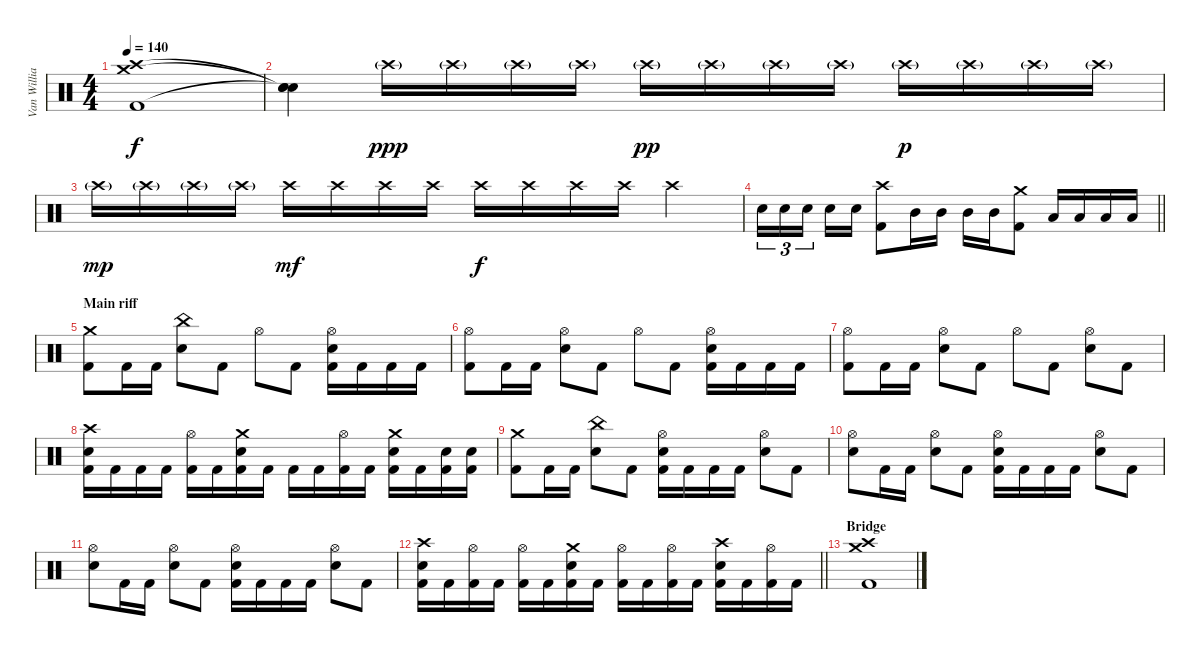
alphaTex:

\track ("Van Williams" "Van Willia") {instrument percussion}
\staff {score}
\articulation defaults
\ts (4 4)
\tempo 140
\clef neutral
\ks c
("Crash medium (hit)" "Crash high (hit)" "Kick (hit) 2").1{dy f} |
("Snare (hit)"{t} "Snare (hit)"{t} "Snare (hit)"{t}).4 "Crash high (hit)"{g}.16{dy ppp} "Crash high (hit)"{g}.16 "Crash high (hit)"{g}.16 "Crash high (hit)"{g}.16 "Crash high (hit)"{g}.16{dy pp} "Crash high (hit)"{g}.16 "Crash high (hit)"{g}.16 "Crash high (hit)"{g}.16 "Crash high (hit)"{g}.16{dy p} "Crash high (hit)"{g}.16 "Crash high (hit)"{g}.16 "Crash high (hit)"{g}.16 |
"Crash high (hit)"{g}.16{dy mp} "Crash high (hit)"{g}.16 "Crash high (hit)"{g}.16 "Crash high (hit)"{g}.16 "Crash high (hit)".16{dy mf} "Crash high (hit)".16 "Crash high (hit)".16 "Crash high (hit)".16 "Crash high (hit)".16{dy f} "Crash high (hit)".16 "Crash high (hit)".16 "Crash high (hit)".16 "Crash high (hit)".4 |
\barLineRight lightlight "Electric Snare (hit)".16{tu (3 2)} "Electric Snare (hit)".16{tu (3 2)} "Electric Snare (hit)".16{tu (3 2) beam splitsecondary} "Electric Snare (hit)".16 "Electric Snare (hit)".16
("Crash high (hit)" "Kick (hit) 2").8 "Mid Tom (hit)".16 "Mid Tom (hit)".16 "Mid Tom (hit)".16 "Mid Tom (hit)".16 ("Crash medium (hit)" "Kick (hit) 2").8 "Low Tom (hit)".16 "Low Tom (hit)".16 "Low Tom (hit)".16 "Low Tom (hit)".16 |
\section ("" "Main riff")
("Crash medium (hit)" "Kick (hit) 2").8 "Kick (hit) 2".16 "Kick (hit) 2".16 ("China (hit)" "Electric Snare (hit)").8 "Kick (hit) 2".8 "Hi-Hat (open)".8 "Kick (hit) 2".8 ("Hi-Hat (open)" "Electric Snare (hit)" "Kick (hit) 2").16 "Kick (hit) 2".16 "Kick (hit) 2".16 "Kick (hit) 2".16 |
("Hi-Hat (open)" "Kick (hit) 2").8 "Kick (hit) 2".16 "Kick (hit) 2".16 ("Hi-Hat (open)" "Electric Snare (hit)").8 "Kick (hit) 2".8 "Hi-Hat (open)".8 "Kick (hit) 2".8 ("Hi-Hat (open)" "Electric Snare (hit)" "Kick (hit) 2").16 "Kick (hit) 2".16 "Kick (hit) 2".16 "Kick (hit) 2".16 |
("Hi-Hat (open)" "Kick (hit) 2").8 "Kick (hit) 2".16 "Kick (hit) 2".16 ("Hi-Hat (open)" "Electric Snare (hit)").8 "Kick (hit) 2".8 "Hi-Hat (open)".8 "Kick (hit) 2".8 ("Hi-Hat (open)" "Electric Snare (hit)").8 "Kick (hit) 2".8 |
("Crash high (hit)" "Electric Snare (hit)" "Kick (hit) 2").16 "Kick (hit) 2".16 "Kick (hit) 2".16 "Kick (hit) 2".16 ("Hi-Hat (open)" "Kick (hit) 2").16 "Kick (hit) 2".16 ("Crash medium (hit)" "Electric Snare (hit)" "Kick (hit) 2").16 "Kick (hit) 2".16 "Kick (hit) 2".16 "Kick (hit) 2".16 ("Hi-Hat (open)" "Kick (hit) 2").16 "Kick (hit) 2".16 ("Crash medium (hit)" "Electric Snare (hit)" "Kick (hit) 2").16 "Kick (hit) 2".16 ("Electric Snare (hit)" "Kick (hit) 2").16 ("Electric Snare (hit)" "Kick (hit) 2").16 |
("Crash medium (hit)" "Kick (hit) 2").8 "Kick (hit) 2".16 "Kick (hit) 2".16 ("China (hit)" "Electric Snare (hit)").8 "Kick (hit) 2".8 ("Hi-Hat (open)" "Electric Snare (hit)" "Kick (hit) 2").16 "Kick (hit) 2".16 "Kick (hit) 2".16 "Kick (hit) 2".16 ("Hi-Hat (open)" "Electric Snare (hit)").8 "Kick (hit) 2".8 |
("Hi-Hat (open)" "Electric Snare (hit)").8 "Kick (hit) 2".16 "Kick (hit) 2".16 ("Hi-Hat (open)" "Electric Snare (hit)").8 "Kick (hit) 2".8 ("Hi-Hat (open)" "Electric Snare (hit)" "Kick (hit) 2").16 "Kick (hit) 2".16 "Kick (hit) 2".16 "Kick (hit) 2".16 ("Hi-Hat (open)" "Electric Snare (hit)").8 "Kick (hit) 2".8 |
("Hi-Hat (open)" "Electric Snare (hit)").8 "Kick (hit) 2".16 "Kick (hit) 2".16 ("Hi-Hat (open)" "Electric Snare (hit)").8 "Kick (hit) 2".8 ("Hi-Hat (open)" "Electric Snare (hit)" "Kick (hit) 2").16 "Kick (hit) 2".16 "Kick (hit) 2".16 "Kick (hit) 2".16 ("Hi-Hat (open)" "Electric Snare (hit)").8 "Kick (hit) 2".8 |
\barLineRight lightlight
("Crash high (hit)" "Electric Snare (hit)" "Kick (hit) 2").16 "Kick (hit) 2".16 ("Hi-Hat (open)" "Kick (hit) 2").16 "Kick (hit) 2".16 ("Hi-Hat (open)" "Kick (hit) 2").16 "Kick (hit) 2".16 ("Crash medium (hit)" "Electric Snare (hit)" "Kick (hit) 2").16 "Kick (hit) 2".16 ("Hi-Hat (open)" "Kick (hit) 2").16 "Kick (hit) 2".16 ("Hi-Hat (open)" "Kick (hit) 2").16 "Kick (hit) 2".16 ("Crash high (hit)" "Electric Snare (hit)" "Kick (hit) 2").16 "Kick (hit) 2".16 ("Hi-Hat (open)" "Kick (hit) 2").16 "Kick (hit) 2".16 |
\section ("" "Bridge")
("Crash medium (hit)" "Crash high (hit)" "Kick (hit) 2").1
